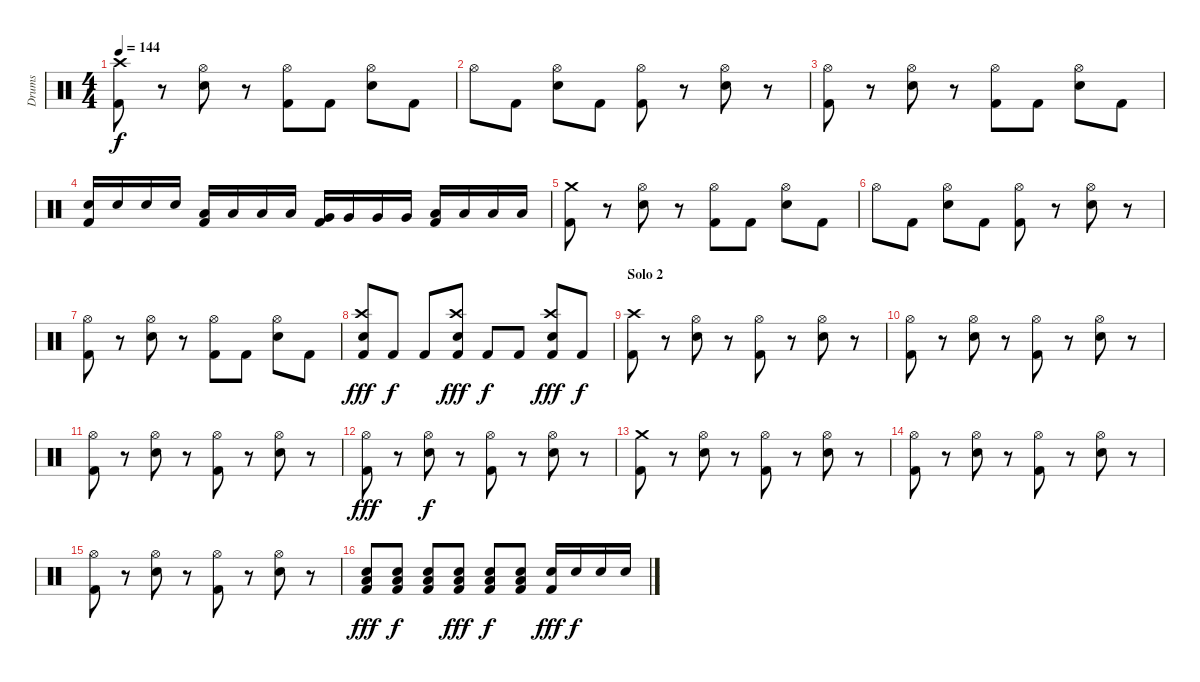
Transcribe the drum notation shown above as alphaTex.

\track ("Drums" "Drums") {instrument percussion}
\staff {score}
\articulation defaults
\ts (4 4)
\tempo 144
\clef neutral
\ks c
("Kick (hit) 2" "Crash high (hit)").8{dy f} r.8 ("Hi-Hat (open)" "Electric Snare (hit)").8 r.8 ("Kick (hit) 2" "Hi-Hat (open)").8 "Kick (hit) 2".8 ("Hi-Hat (open)" "Electric Snare (hit)").8 "Kick (hit) 2".8 |
"Hi-Hat (open)".8 "Kick (hit) 2".8 ("Hi-Hat (open)" "Electric Snare (hit)").8 "Kick (hit) 2".8 ("Kick (hit) 2" "Hi-Hat (open)").8 r.8 ("Hi-Hat (open)" "Electric Snare (hit)").8 r.8 |
("Kick (hit) 2" "Hi-Hat (open)").8 r.8 ("Hi-Hat (open)" "Electric Snare (hit)").8 r.8 ("Kick (hit) 2" "Hi-Hat (open)").8 "Kick (hit) 2".8 ("Hi-Hat (open)" "Electric Snare (hit)").8 "Kick (hit) 2".8 |
("Kick (hit) 2" "Electric Snare (hit)").16 "Electric Snare (hit)".16 "Electric Snare (hit)".16 "Electric Snare (hit)".16 ("Kick (hit) 2" "Low Tom (hit)").16 "Low Tom (hit)".16 "Low Tom (hit)".16 "Low Tom (hit)".16 ("Kick (hit) 2" "Very Low Tom (hit)").16 "Very Low Tom (hit)".16 "Very Low Tom (hit)".16 "Very Low Tom (hit)".16 ("Kick (hit) 2" "Low Floor Tom (hit)").16 "Low Floor Tom (hit)".16 "Low Floor Tom (hit)".16 "Low Floor Tom (hit)".16 |
("Kick (hit) 2" "Crash medium (hit)").8 r.8 ("Hi-Hat (open)" "Electric Snare (hit)").8 r.8 ("Kick (hit) 2" "Hi-Hat (open)").8 "Kick (hit) 2".8 ("Hi-Hat (open)" "Electric Snare (hit)").8 "Kick (hit) 2".8 |
"Hi-Hat (open)".8 "Kick (hit) 2".8 ("Hi-Hat (open)" "Electric Snare (hit)").8 "Kick (hit) 2".8 ("Kick (hit) 2" "Hi-Hat (open)").8 r.8 ("Hi-Hat (open)" "Electric Snare (hit)").8 r.8 |
("Kick (hit) 2" "Hi-Hat (open)").8 r.8 ("Hi-Hat (open)" "Electric Snare (hit)").8 r.8 ("Kick (hit) 2" "Hi-Hat (open)").8 "Kick (hit) 2".8 ("Hi-Hat (open)" "Electric Snare (hit)").8 "Kick (hit) 2".8 |
("Kick (hit) 2" "Electric Snare (hit)" "Crash high (hit)").8{dy fff} "Kick (hit) 2".8{dy f} "Kick (hit) 2".8 ("Kick (hit) 2" "Electric Snare (hit)" "Crash high (hit)").8{dy fff} "Kick (hit) 2".8{dy f} "Kick (hit) 2".8 ("Kick (hit) 2" "Electric Snare (hit)" "Crash high (hit)").8{dy fff} "Kick (hit) 2".8{dy f} |
\section ("" "Solo 2")
("Kick (hit) 2" "Crash high (hit)").8 r.8 ("Hi-Hat (open)" "Electric Snare (hit)").8 r.8 ("Kick (hit) 2" "Hi-Hat (open)").8 r.8 ("Hi-Hat (open)" "Electric Snare (hit)").8 r.8 |
("Kick (hit) 2" "Hi-Hat (open)").8 r.8 ("Hi-Hat (open)" "Electric Snare (hit)").8 r.8 ("Kick (hit) 2" "Hi-Hat (open)").8 r.8 ("Hi-Hat (open)" "Electric Snare (hit)").8 r.8 |
("Kick (hit) 2" "Hi-Hat (open)").8 r.8 ("Hi-Hat (open)" "Electric Snare (hit)").8 r.8 ("Kick (hit) 2" "Hi-Hat (open)").8 r.8 ("Hi-Hat (open)" "Electric Snare (hit)").8 r.8 |
("Kick (hit) 2" "Hi-Hat (open)").8{dy fff} r.8 ("Hi-Hat (open)" "Electric Snare (hit)").8{dy f} r.8 ("Kick (hit) 2" "Hi-Hat (open)").8 r.8 ("Hi-Hat (open)" "Electric Snare (hit)").8 r.8 |
("Kick (hit) 2" "Crash medium (hit)").8 r.8 ("Hi-Hat (open)" "Electric Snare (hit)").8 r.8 ("Kick (hit) 2" "Hi-Hat (open)").8 r.8 ("Hi-Hat (open)" "Electric Snare (hit)").8 r.8 |
("Kick (hit) 2" "Hi-Hat (open)").8 r.8 ("Hi-Hat (open)" "Electric Snare (hit)").8 r.8 ("Kick (hit) 2" "Hi-Hat (open)").8 r.8 ("Hi-Hat (open)" "Electric Snare (hit)").8 r.8 |
("Kick (hit) 2" "Hi-Hat (open)").8 r.8 ("Hi-Hat (open)" "Electric Snare (hit)").8 r.8 ("Kick (hit) 2" "Hi-Hat (open)").8 r.8 ("Hi-Hat (open)" "Electric Snare (hit)").8 r.8 |
("Kick (hit) 2" "Electric Snare (hit)" "Low Floor Tom (hit)").8{dy fff} ("Kick (hit) 2" "Electric Snare (hit)" "Low Floor Tom (hit)").8{dy f} ("Kick (hit) 2" "Electric Snare (hit)" "Low Floor Tom (hit)").8 ("Kick (hit) 2" "Electric Snare (hit)" "Low Floor Tom (hit)").8{dy fff} ("Kick (hit) 2" "Electric Snare (hit)" "Low Floor Tom (hit)").8{dy f} ("Kick (hit) 2" "Electric Snare (hit)" "Low Floor Tom (hit)").8 ("Kick (hit) 2" "Electric Snare (hit)").16{dy fff} "Electric Snare (hit)".16{dy f} "Electric Snare (hit)".16 "Electric Snare (hit)".16
